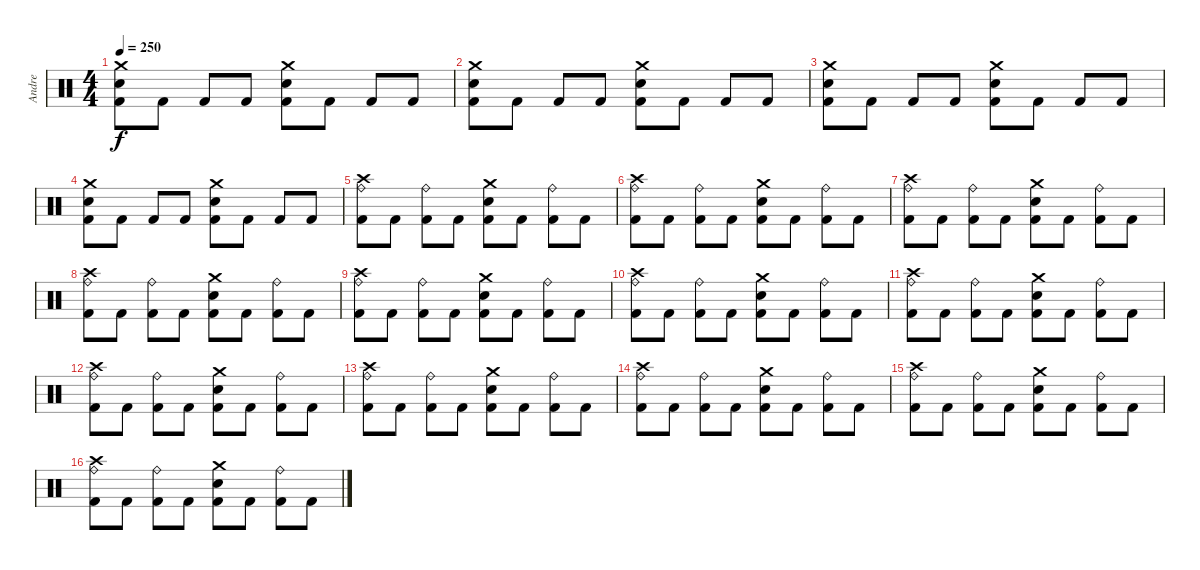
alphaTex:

\track ("Andre" "Andre") {instrument percussion}
\staff {score}
\articulation defaults
\ts (4 4)
\tempo 250
\clef neutral
\ks c
("Crash medium (hit)" "Snare (hit) 2" "Kick (hit) 2").8{dy f} "Kick (hit) 2".8 "Kick (hit) 2".8 "Kick (hit) 2".8 ("Crash medium (hit)" "Snare (hit) 2" "Kick (hit) 2").8 "Kick (hit) 2".8 "Kick (hit) 2".8 "Kick (hit) 2".8 |
("Crash medium (hit)" "Snare (hit) 2" "Kick (hit) 2").8 "Kick (hit) 2".8 "Kick (hit) 2".8 "Kick (hit) 2".8 ("Crash medium (hit)" "Snare (hit) 2" "Kick (hit) 2").8 "Kick (hit) 2".8 "Kick (hit) 2".8 "Kick (hit) 2".8 |
("Crash medium (hit)" "Snare (hit) 2" "Kick (hit) 2").8 "Kick (hit) 2".8 "Kick (hit) 2".8 "Kick (hit) 2".8 ("Crash medium (hit)" "Snare (hit) 2" "Kick (hit) 2").8 "Kick (hit) 2".8 "Kick (hit) 2".8 "Kick (hit) 2".8 |
("Crash medium (hit)" "Snare (hit) 2" "Kick (hit) 2").8 "Kick (hit) 2".8 "Kick (hit) 2".8 "Kick (hit) 2".8 ("Crash medium (hit)" "Snare (hit) 2" "Kick (hit) 2").8 "Kick (hit) 2".8 "Kick (hit) 2".8 "Kick (hit) 2".8 |
("Crash high (hit)" "Ride (bell)" "Kick (hit) 2").8 "Kick (hit) 2".8 ("Ride (bell)" "Kick (hit) 2").8 "Kick (hit) 2".8 ("Crash medium (hit)" "Snare (hit) 2" "Kick (hit) 2").8 "Kick (hit) 2".8 ("Ride (bell)" "Kick (hit) 2").8 "Kick (hit) 2".8 |
("Crash high (hit)" "Ride (bell)" "Kick (hit) 2").8 "Kick (hit) 2".8 ("Ride (bell)" "Kick (hit) 2").8 "Kick (hit) 2".8 ("Crash medium (hit)" "Snare (hit) 2" "Kick (hit) 2").8 "Kick (hit) 2".8 ("Ride (bell)" "Kick (hit) 2").8 "Kick (hit) 2".8 |
("Crash high (hit)" "Ride (bell)" "Kick (hit) 2").8 "Kick (hit) 2".8 ("Ride (bell)" "Kick (hit) 2").8 "Kick (hit) 2".8 ("Crash medium (hit)" "Snare (hit) 2" "Kick (hit) 2").8 "Kick (hit) 2".8 ("Ride (bell)" "Kick (hit) 2").8 "Kick (hit) 2".8 |
("Crash high (hit)" "Ride (bell)" "Kick (hit) 2").8 "Kick (hit) 2".8 ("Ride (bell)" "Kick (hit) 2").8 "Kick (hit) 2".8 ("Crash medium (hit)" "Snare (hit) 2" "Kick (hit) 2").8 "Kick (hit) 2".8 ("Ride (bell)" "Kick (hit) 2").8 "Kick (hit) 2".8 |
("Crash high (hit)" "Ride (bell)" "Kick (hit) 2").8 "Kick (hit) 2".8 ("Ride (bell)" "Kick (hit) 2").8 "Kick (hit) 2".8 ("Crash medium (hit)" "Snare (hit) 2" "Kick (hit) 2").8 "Kick (hit) 2".8 ("Ride (bell)" "Kick (hit) 2").8 "Kick (hit) 2".8 |
("Crash high (hit)" "Ride (bell)" "Kick (hit) 2").8 "Kick (hit) 2".8 ("Ride (bell)" "Kick (hit) 2").8 "Kick (hit) 2".8 ("Crash medium (hit)" "Snare (hit) 2" "Kick (hit) 2").8 "Kick (hit) 2".8 ("Ride (bell)" "Kick (hit) 2").8 "Kick (hit) 2".8 |
("Crash high (hit)" "Ride (bell)" "Kick (hit) 2").8 "Kick (hit) 2".8 ("Ride (bell)" "Kick (hit) 2").8 "Kick (hit) 2".8 ("Crash medium (hit)" "Snare (hit) 2" "Kick (hit) 2").8 "Kick (hit) 2".8 ("Ride (bell)" "Kick (hit) 2").8 "Kick (hit) 2".8 |
("Crash high (hit)" "Ride (bell)" "Kick (hit) 2").8 "Kick (hit) 2".8 ("Ride (bell)" "Kick (hit) 2").8 "Kick (hit) 2".8 ("Crash medium (hit)" "Snare (hit) 2" "Kick (hit) 2").8 "Kick (hit) 2".8 ("Ride (bell)" "Kick (hit) 2").8 "Kick (hit) 2".8 |
("Crash high (hit)" "Ride (bell)" "Kick (hit) 2").8 "Kick (hit) 2".8 ("Ride (bell)" "Kick (hit) 2").8 "Kick (hit) 2".8 ("Crash medium (hit)" "Snare (hit) 2" "Kick (hit) 2").8 "Kick (hit) 2".8 ("Ride (bell)" "Kick (hit) 2").8 "Kick (hit) 2".8 |
("Crash high (hit)" "Ride (bell)" "Kick (hit) 2").8 "Kick (hit) 2".8 ("Ride (bell)" "Kick (hit) 2").8 "Kick (hit) 2".8 ("Crash medium (hit)" "Snare (hit) 2" "Kick (hit) 2").8 "Kick (hit) 2".8 ("Ride (bell)" "Kick (hit) 2").8 "Kick (hit) 2".8 |
("Crash high (hit)" "Ride (bell)" "Kick (hit) 2").8 "Kick (hit) 2".8 ("Ride (bell)" "Kick (hit) 2").8 "Kick (hit) 2".8 ("Crash medium (hit)" "Snare (hit) 2" "Kick (hit) 2").8 "Kick (hit) 2".8 ("Ride (bell)" "Kick (hit) 2").8 "Kick (hit) 2".8 |
("Crash high (hit)" "Ride (bell)" "Kick (hit) 2").8 "Kick (hit) 2".8 ("Ride (bell)" "Kick (hit) 2").8 "Kick (hit) 2".8 ("Crash medium (hit)" "Snare (hit) 2" "Kick (hit) 2").8 "Kick (hit) 2".8 ("Ride (bell)" "Kick (hit) 2").8 "Kick (hit) 2".8
